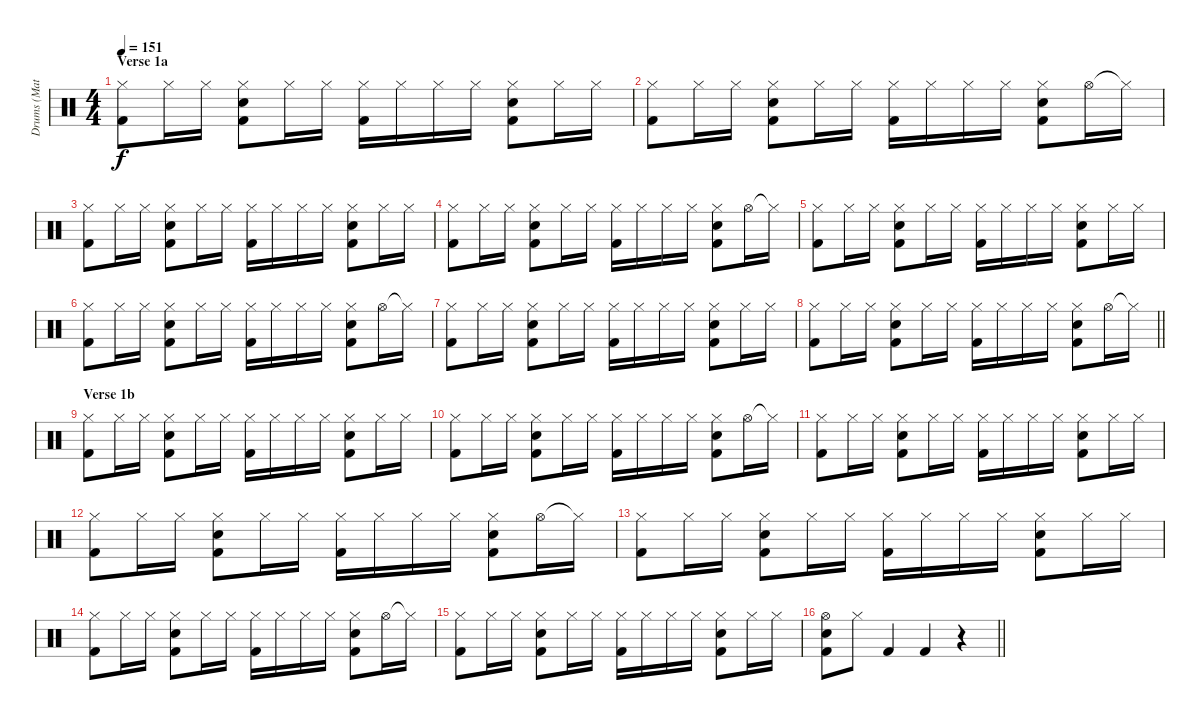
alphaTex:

\track ("Drums (Matt Tong)" "Drums (Mat") {instrument percussion}
\staff {score}
\articulation defaults
\ts (4 4)
\section ("" "Verse 1a")
\tempo 151
\clef neutral
\ks c
("Hi-Hat (closed)" "Kick (hit) 2").8{dy f} "Hi-Hat (closed)".16 "Hi-Hat (closed)".16 ("Hi-Hat (closed)" "Electric Snare (hit)" "Kick (hit) 2").8 "Hi-Hat (closed)".16 "Hi-Hat (closed)".16 ("Hi-Hat (closed)" "Kick (hit) 2").16 "Hi-Hat (closed)".16 "Hi-Hat (closed)".16 "Hi-Hat (closed)".16 ("Hi-Hat (closed)" "Electric Snare (hit)" "Kick (hit) 2").8 "Hi-Hat (closed)".16 "Hi-Hat (closed)".16 |
("Hi-Hat (closed)" "Kick (hit) 2").8 "Hi-Hat (closed)".16 "Hi-Hat (closed)".16 ("Hi-Hat (closed)" "Electric Snare (hit)" "Kick (hit) 2").8 "Hi-Hat (closed)".16 "Hi-Hat (closed)".16 ("Hi-Hat (closed)" "Kick (hit) 2").16 "Hi-Hat (closed)".16 "Hi-Hat (closed)".16 "Hi-Hat (closed)".16 ("Hi-Hat (closed)" "Electric Snare (hit)" "Kick (hit) 2").8 "Hi-Hat (open)".16 "Hi-Hat (closed)"{t}.16 |
("Hi-Hat (closed)" "Kick (hit) 2").8 "Hi-Hat (closed)".16 "Hi-Hat (closed)".16 ("Hi-Hat (closed)" "Electric Snare (hit)" "Kick (hit) 2").8 "Hi-Hat (closed)".16 "Hi-Hat (closed)".16 ("Hi-Hat (closed)" "Kick (hit) 2").16 "Hi-Hat (closed)".16 "Hi-Hat (closed)".16 "Hi-Hat (closed)".16 ("Hi-Hat (closed)" "Electric Snare (hit)" "Kick (hit) 2").8 "Hi-Hat (closed)".16 "Hi-Hat (closed)".16 |
("Hi-Hat (closed)" "Kick (hit) 2").8 "Hi-Hat (closed)".16 "Hi-Hat (closed)".16 ("Hi-Hat (closed)" "Electric Snare (hit)" "Kick (hit) 2").8 "Hi-Hat (closed)".16 "Hi-Hat (closed)".16 ("Hi-Hat (closed)" "Kick (hit) 2").16 "Hi-Hat (closed)".16 "Hi-Hat (closed)".16 "Hi-Hat (closed)".16 ("Hi-Hat (closed)" "Electric Snare (hit)" "Kick (hit) 2").8 "Hi-Hat (open)".16 "Hi-Hat (closed)"{t}.16 |
("Hi-Hat (closed)" "Kick (hit) 2").8 "Hi-Hat (closed)".16 "Hi-Hat (closed)".16 ("Hi-Hat (closed)" "Electric Snare (hit)" "Kick (hit) 2").8 "Hi-Hat (closed)".16 "Hi-Hat (closed)".16 ("Hi-Hat (closed)" "Kick (hit) 2").16 "Hi-Hat (closed)".16 "Hi-Hat (closed)".16 "Hi-Hat (closed)".16 ("Hi-Hat (closed)" "Electric Snare (hit)" "Kick (hit) 2").8 "Hi-Hat (closed)".16 "Hi-Hat (closed)".16 |
("Hi-Hat (closed)" "Kick (hit) 2").8 "Hi-Hat (closed)".16 "Hi-Hat (closed)".16 ("Hi-Hat (closed)" "Electric Snare (hit)" "Kick (hit) 2").8 "Hi-Hat (closed)".16 "Hi-Hat (closed)".16 ("Hi-Hat (closed)" "Kick (hit) 2").16 "Hi-Hat (closed)".16 "Hi-Hat (closed)".16 "Hi-Hat (closed)".16 ("Hi-Hat (closed)" "Electric Snare (hit)" "Kick (hit) 2").8 "Hi-Hat (open)".16 "Hi-Hat (closed)"{t}.16 |
("Hi-Hat (closed)" "Kick (hit) 2").8 "Hi-Hat (closed)".16 "Hi-Hat (closed)".16 ("Hi-Hat (closed)" "Electric Snare (hit)" "Kick (hit) 2").8 "Hi-Hat (closed)".16 "Hi-Hat (closed)".16 ("Hi-Hat (closed)" "Kick (hit) 2").16 "Hi-Hat (closed)".16 "Hi-Hat (closed)".16 "Hi-Hat (closed)".16 ("Hi-Hat (closed)" "Electric Snare (hit)" "Kick (hit) 2").8 "Hi-Hat (closed)".16 "Hi-Hat (closed)".16 |
\barLineRight lightlight
("Hi-Hat (closed)" "Kick (hit) 2").8 "Hi-Hat (closed)".16 "Hi-Hat (closed)".16 ("Hi-Hat (closed)" "Electric Snare (hit)" "Kick (hit) 2").8 "Hi-Hat (closed)".16 "Hi-Hat (closed)".16 ("Hi-Hat (closed)" "Kick (hit) 2").16 "Hi-Hat (closed)".16 "Hi-Hat (closed)".16 "Hi-Hat (closed)".16 ("Hi-Hat (closed)" "Electric Snare (hit)" "Kick (hit) 2").8 "Hi-Hat (open)".16 "Hi-Hat (closed)"{t}.16 |
\section ("" "Verse 1b")
("Hi-Hat (closed)" "Kick (hit) 2").8 "Hi-Hat (closed)".16 "Hi-Hat (closed)".16 ("Hi-Hat (closed)" "Electric Snare (hit)" "Kick (hit) 2").8 "Hi-Hat (closed)".16 "Hi-Hat (closed)".16 ("Hi-Hat (closed)" "Kick (hit) 2").16 "Hi-Hat (closed)".16 "Hi-Hat (closed)".16 "Hi-Hat (closed)".16 ("Hi-Hat (closed)" "Electric Snare (hit)" "Kick (hit) 2").8 "Hi-Hat (closed)".16 "Hi-Hat (closed)".16 |
("Hi-Hat (closed)" "Kick (hit) 2").8 "Hi-Hat (closed)".16 "Hi-Hat (closed)".16 ("Hi-Hat (closed)" "Electric Snare (hit)" "Kick (hit) 2").8 "Hi-Hat (closed)".16 "Hi-Hat (closed)".16 ("Hi-Hat (closed)" "Kick (hit) 2").16 "Hi-Hat (closed)".16 "Hi-Hat (closed)".16 "Hi-Hat (closed)".16 ("Hi-Hat (closed)" "Electric Snare (hit)" "Kick (hit) 2").8 "Hi-Hat (open)".16 "Hi-Hat (closed)"{t}.16 |
("Hi-Hat (closed)" "Kick (hit) 2").8 "Hi-Hat (closed)".16 "Hi-Hat (closed)".16 ("Hi-Hat (closed)" "Electric Snare (hit)" "Kick (hit) 2").8 "Hi-Hat (closed)".16 "Hi-Hat (closed)".16 ("Hi-Hat (closed)" "Kick (hit) 2").16 "Hi-Hat (closed)".16 "Hi-Hat (closed)".16 "Hi-Hat (closed)".16 ("Hi-Hat (closed)" "Electric Snare (hit)" "Kick (hit) 2").8 "Hi-Hat (closed)".16 "Hi-Hat (closed)".16 |
("Hi-Hat (closed)" "Kick (hit) 2").8 "Hi-Hat (closed)".16 "Hi-Hat (closed)".16 ("Hi-Hat (closed)" "Electric Snare (hit)" "Kick (hit) 2").8 "Hi-Hat (closed)".16 "Hi-Hat (closed)".16 ("Hi-Hat (closed)" "Kick (hit) 2").16 "Hi-Hat (closed)".16 "Hi-Hat (closed)".16 "Hi-Hat (closed)".16 ("Hi-Hat (closed)" "Electric Snare (hit)" "Kick (hit) 2").8 "Hi-Hat (open)".16 "Hi-Hat (closed)"{t}.16 |
("Hi-Hat (closed)" "Kick (hit) 2").8 "Hi-Hat (closed)".16 "Hi-Hat (closed)".16 ("Hi-Hat (closed)" "Electric Snare (hit)" "Kick (hit) 2").8 "Hi-Hat (closed)".16 "Hi-Hat (closed)".16 ("Hi-Hat (closed)" "Kick (hit) 2").16 "Hi-Hat (closed)".16 "Hi-Hat (closed)".16 "Hi-Hat (closed)".16 ("Hi-Hat (closed)" "Electric Snare (hit)" "Kick (hit) 2").8 "Hi-Hat (closed)".16 "Hi-Hat (closed)".16 |
("Hi-Hat (closed)" "Kick (hit) 2").8 "Hi-Hat (closed)".16 "Hi-Hat (closed)".16 ("Hi-Hat (closed)" "Electric Snare (hit)" "Kick (hit) 2").8 "Hi-Hat (closed)".16 "Hi-Hat (closed)".16 ("Hi-Hat (closed)" "Kick (hit) 2").16 "Hi-Hat (closed)".16 "Hi-Hat (closed)".16 "Hi-Hat (closed)".16 ("Hi-Hat (closed)" "Electric Snare (hit)" "Kick (hit) 2").8 "Hi-Hat (open)".16 "Hi-Hat (closed)"{t}.16 |
("Hi-Hat (closed)" "Kick (hit) 2").8 "Hi-Hat (closed)".16 "Hi-Hat (closed)".16 ("Hi-Hat (closed)" "Electric Snare (hit)" "Kick (hit) 2").8 "Hi-Hat (closed)".16 "Hi-Hat (closed)".16 ("Hi-Hat (closed)" "Kick (hit) 2").16 "Hi-Hat (closed)".16 "Hi-Hat (closed)".16 "Hi-Hat (closed)".16 ("Hi-Hat (closed)" "Electric Snare (hit)" "Kick (hit) 2").8 "Hi-Hat (closed)".16 "Hi-Hat (closed)".16 |
\barLineRight lightlight
("Hi-Hat (open)" "Electric Snare (hit)" "Kick (hit) 2").8 "Hi-Hat (closed)".8 "Kick (hit) 2".4 "Kick (hit) 2".4 r.4
